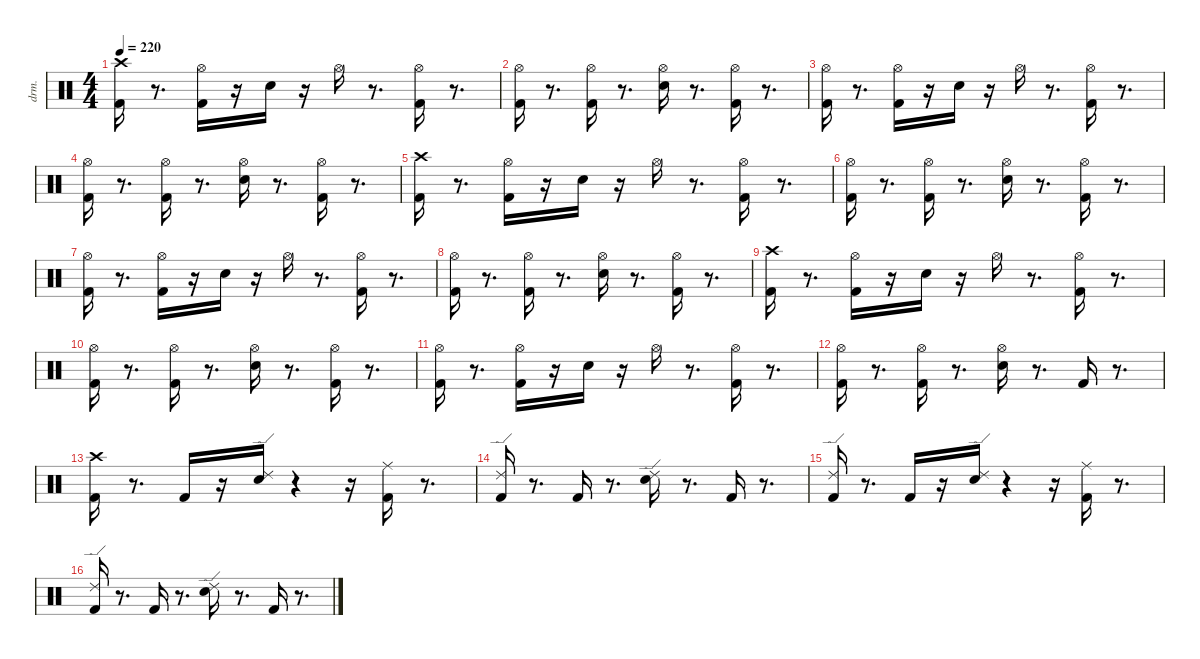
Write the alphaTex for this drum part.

\defaultSystemsLayout 4
\hideDynamics
\bracketExtendMode nobrackets
\otherSystemsTrackNameOrientation horizontal
\track ("EZdrummer 3" "drm.") {instrument percussion}
\staff {score}
\articulation defaults
\ts (4 4)
\tempo 220
\clef neutral
\ks c
("Kick (hit) 2" "Crash high (hit)"{acc #}).16{dy fff beam Down} r.8{d beam Down} ("Kick (hit) 2" "Hi-Hat (open)"{acc #}).16{dy ff beam Down} r.16{beam Down} "Snare (hit) 2".16{beam Down} r.16{beam Down} "Hi-Hat (open)"{acc #}.16{beam Down} r.8{d beam Down} ("Kick (hit) 2" "Hi-Hat (open)"{acc #}).16{beam Down} r.8{d beam Down} |
("Kick (hit) 2" "Hi-Hat (open)"{acc #}).16{beam Down} r.8{d beam Down} ("Kick (hit) 2" "Hi-Hat (open)"{acc #}).16{beam Down} r.8{d beam Down} ("Snare (hit) 2" "Hi-Hat (open)"{acc #}).16{beam Down} r.8{d beam Down} ("Kick (hit) 2" "Hi-Hat (open)"{acc #}).16{dy mf beam Down} r.8{d beam Down} |
("Kick (hit) 2" "Hi-Hat (open)"{acc #}).16{dy fff beam Down} r.8{d beam Down} ("Kick (hit) 2" "Hi-Hat (open)"{acc #}).16{dy ff beam Down} r.16{beam Down} "Snare (hit) 2".16{beam Down} r.16{beam Down} "Hi-Hat (open)"{acc #}.16{beam Down} r.8{d beam Down} ("Kick (hit) 2" "Hi-Hat (open)"{acc #}).16{beam Down} r.8{d beam Down} |
("Kick (hit) 2" "Hi-Hat (open)"{acc #}).16{beam Down} r.8{d beam Down} ("Kick (hit) 2" "Hi-Hat (open)"{acc #}).16{beam Down} r.8{d beam Down} ("Snare (hit) 2" "Hi-Hat (open)"{acc #}).16{beam Down} r.8{d beam Down} ("Kick (hit) 2" "Hi-Hat (open)"{acc #}).16{dy mf beam Down} r.8{d beam Down} |
("Kick (hit) 2" "Crash high (hit)"{acc #}).16{dy fff beam Down} r.8{d beam Down} ("Kick (hit) 2" "Hi-Hat (open)"{acc #}).16{dy ff beam Down} r.16{beam Down} "Snare (hit) 2".16{beam Down} r.16{beam Down} "Hi-Hat (open)"{acc #}.16{beam Down} r.8{d beam Down} ("Kick (hit) 2" "Hi-Hat (open)"{acc #}).16{beam Down} r.8{d beam Down} |
("Kick (hit) 2" "Hi-Hat (open)"{acc #}).16{beam Down} r.8{d beam Down} ("Kick (hit) 2" "Hi-Hat (open)"{acc #}).16{beam Down} r.8{d beam Down} ("Snare (hit) 2" "Hi-Hat (open)"{acc #}).16{beam Down} r.8{d beam Down} ("Kick (hit) 2" "Hi-Hat (open)"{acc #}).16{dy mf beam Down} r.8{d beam Down} |
("Kick (hit) 2" "Hi-Hat (open)"{acc #}).16{dy fff beam Down} r.8{d beam Down} ("Kick (hit) 2" "Hi-Hat (open)"{acc #}).16{dy ff beam Down} r.16{beam Down} "Snare (hit) 2".16{beam Down} r.16{beam Down} "Hi-Hat (open)"{acc #}.16{beam Down} r.8{d beam Down} ("Kick (hit) 2" "Hi-Hat (open)"{acc #}).16{beam Down} r.8{d beam Down} |
("Kick (hit) 2" "Hi-Hat (open)"{acc #}).16{beam Down} r.8{d beam Down} ("Kick (hit) 2" "Hi-Hat (open)"{acc #}).16{beam Down} r.8{d beam Down} ("Snare (hit) 2" "Hi-Hat (open)"{acc #}).16{beam Down} r.8{d beam Down} ("Kick (hit) 2" "Hi-Hat (open)"{acc #}).16{dy mf beam Down} r.8{d beam Down} |
("Kick (hit) 2" "Crash high (hit)"{acc #}).16{dy fff beam Down} r.8{d beam Down} ("Kick (hit) 2" "Hi-Hat (open)"{acc #}).16{dy ff beam Down} r.16{beam Down} "Snare (hit) 2".16{beam Down} r.16{beam Down} "Hi-Hat (open)"{acc #}.16{beam Down} r.8{d beam Down} ("Kick (hit) 2" "Hi-Hat (open)"{acc #}).16{beam Down} r.8{d beam Down} |
("Kick (hit) 2" "Hi-Hat (open)"{acc #}).16{beam Down} r.8{d beam Down} ("Kick (hit) 2" "Hi-Hat (open)"{acc #}).16{beam Down} r.8{d beam Down} ("Snare (hit) 2" "Hi-Hat (open)"{acc #}).16{beam Down} r.8{d beam Down} ("Kick (hit) 2" "Hi-Hat (open)"{acc #}).16{dy mf beam Down} r.8{d beam Down} |
("Kick (hit) 2" "Hi-Hat (open)"{acc #}).16{dy fff beam Down} r.8{d beam Down} ("Kick (hit) 2" "Hi-Hat (open)"{acc #}).16{dy ff beam Down} r.16{beam Down} "Snare (hit) 2".16{beam Down} r.16{beam Down} "Hi-Hat (open)"{acc #}.16{beam Down} r.8{d beam Down} ("Kick (hit) 2" "Hi-Hat (open)"{acc #}).16{beam Down} r.8{d beam Down} |
("Kick (hit) 2" "Hi-Hat (open)"{acc #}).16{beam Down} r.8{d beam Down} ("Kick (hit) 2" "Hi-Hat (open)"{acc #}).16{beam Down} r.8{d beam Down} ("Snare (hit) 2" "Hi-Hat (open)"{acc #}).16{beam Down} r.8{d beam Down} "Kick (hit) 2".16{dy mf beam Up} r.8{d beam Up} |
("Kick (hit) 2" "Crash high (hit)"{acc #}).16{dy fff beam Down} r.8{d beam Down} "Kick (hit) 2".16{dy ff beam Up} r.16{beam Up} ("Snare (hit) 2" "Ride (edge) 2").16{beam Down} r.4{beam Down} r.16{beam Down} ("Kick (hit) 2" "Ride (middle)"{acc #}).16{dy f beam Down} r.8{d beam Down} |
("Kick (hit) 2" "Ride (edge) 2").16{dy ff beam Up} r.8{d beam Up} "Kick (hit) 2".16{dy f beam Up} r.8{d beam Up} ("Snare (hit) 2" "Ride (edge) 2").16{dy ff beam Down} r.8{d beam Down} "Kick (hit) 2".16{dy mf beam Up} r.8{d beam Up} |
("Kick (hit) 2" "Ride (edge) 2").16{dy fff beam Up} r.8{d beam Up} "Kick (hit) 2".16{dy ff beam Up} r.16{beam Up} ("Snare (hit) 2" "Ride (edge) 2").16{beam Down} r.4{beam Down} r.16{beam Down} ("Kick (hit) 2" "Ride (middle)"{acc #}).16{dy f beam Down} r.8{d beam Down} |
("Kick (hit) 2" "Ride (edge) 2").16{dy ff beam Up} r.8{d beam Up} "Kick (hit) 2".16{dy f beam Up} r.8{d beam Up} ("Snare (hit) 2" "Ride (edge) 2").16{dy ff beam Down} r.8{d beam Down} "Kick (hit) 2".16{dy mf beam Up} r.8{d beam Up}
